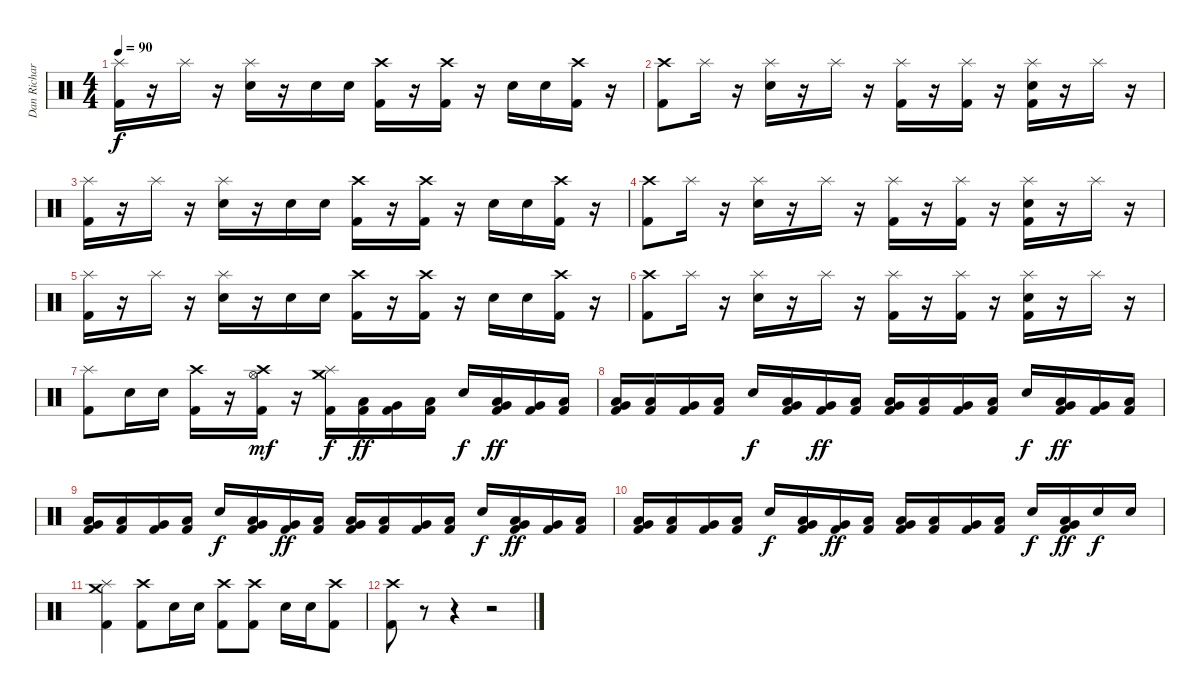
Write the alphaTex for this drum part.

\track ("Dan Richardson" "Dan Richar") {instrument percussion}
\staff {score}
\articulation defaults
\ts (4 4)
\tempo 90
\clef neutral
\ks c
("Splash (hit)" "Kick (hit) 2").16{dy f} r.16 "Splash (hit)".16 r.16 ("Splash (hit)" "Snare (hit) 2").16 r.16 "Snare (hit) 2".16 "Snare (hit) 2".16 ("Crash high (hit)" "Kick (hit) 2").16 r.16 ("Crash high (hit)" "Kick (hit) 2").16 r.16 "Snare (hit) 2".16 "Snare (hit) 2".16 ("Crash high (hit)" "Kick (hit) 2").16 r.16 |
("Crash high (hit)" "Kick (hit) 2").8 "Splash (hit)".16 r.16 ("Splash (hit)" "Snare (hit) 2").16 r.16 "Splash (hit)".16 r.16 ("Splash (hit)" "Kick (hit) 2").16 r.16 ("Splash (hit)" "Kick (hit) 2").16 r.16 ("Splash (hit)" "Snare (hit) 2" "Kick (hit) 2").16 r.16 "Splash (hit)".16 r.16 |
("Splash (hit)" "Kick (hit) 2").16 r.16 "Splash (hit)".16 r.16 ("Splash (hit)" "Snare (hit) 2").16 r.16 "Snare (hit) 2".16 "Snare (hit) 2".16 ("Crash high (hit)" "Kick (hit) 2").16 r.16 ("Crash high (hit)" "Kick (hit) 2").16 r.16 "Snare (hit) 2".16 "Snare (hit) 2".16 ("Crash high (hit)" "Kick (hit) 2").16 r.16 |
("Crash high (hit)" "Kick (hit) 2").8 "Splash (hit)".16 r.16 ("Splash (hit)" "Snare (hit) 2").16 r.16 "Splash (hit)".16 r.16 ("Splash (hit)" "Kick (hit) 2").16 r.16 ("Splash (hit)" "Kick (hit) 2").16 r.16 ("Splash (hit)" "Snare (hit) 2" "Kick (hit) 2").16 r.16 "Splash (hit)".16 r.16 |
("Splash (hit)" "Kick (hit) 2").16 r.16 "Splash (hit)".16 r.16 ("Splash (hit)" "Snare (hit) 2").16 r.16 "Snare (hit) 2".16 "Snare (hit) 2".16 ("Crash high (hit)" "Kick (hit) 2").16 r.16 ("Crash high (hit)" "Kick (hit) 2").16 r.16 "Snare (hit) 2".16 "Snare (hit) 2".16 ("Crash high (hit)" "Kick (hit) 2").16 r.16 |
("Crash high (hit)" "Kick (hit) 2").8 "Splash (hit)".16 r.16 ("Splash (hit)" "Snare (hit) 2").16 r.16 "Splash (hit)".16 r.16 ("Splash (hit)" "Kick (hit) 2").16 r.16 ("Splash (hit)" "Kick (hit) 2").16 r.16 ("Splash (hit)" "Snare (hit) 2" "Kick (hit) 2").16 r.16 "Splash (hit)".16 r.16 |
("Splash (hit)" "Kick (hit) 2").8 "Snare (hit) 2".16 "Snare (hit) 2".16 ("Crash high (hit)" "Kick (hit) 2").16 r.16 ("Crash high (hit)" "Hi-Hat (open)" "Kick (hit) 2").16{dy mf} r.16 ("Crash medium (hit)" "Splash (hit)" "Kick (hit) 2").16{dy f} ("Low Tom (hit)" "Kick (hit) 2").16{dy ff} ("Very Low Tom (hit)" "Kick (hit) 2").16 ("Low Floor Tom (hit)" "Kick (hit) 2").16 "Snare (hit) 2".16{dy f} ("Low Floor Tom (hit)" "Very Low Tom (hit)" "Kick (hit) 2").16{dy ff} ("Very Low Tom (hit)" "Kick (hit) 2").16 ("Low Floor Tom (hit)" "Kick (hit) 2").16 |
("Very Low Tom (hit)" "Low Tom (hit)" "Kick (hit) 2").16 ("Low Tom (hit)" "Kick (hit) 2").16 ("Very Low Tom (hit)" "Kick (hit) 2").16 ("Low Floor Tom (hit)" "Kick (hit) 2").16 "Snare (hit) 2".16{dy f} ("Low Floor Tom (hit)" "Very Low Tom (hit)" "Kick (hit) 2").16 ("Very Low Tom (hit)" "Kick (hit) 2").16{dy ff} ("Low Floor Tom (hit)" "Kick (hit) 2").16 ("Very Low Tom (hit)" "Low Tom (hit)" "Kick (hit) 2").16 ("Low Tom (hit)" "Kick (hit) 2").16 ("Very Low Tom (hit)" "Kick (hit) 2").16 ("Low Floor Tom (hit)" "Kick (hit) 2").16 "Snare (hit) 2".16{dy f} ("Low Floor Tom (hit)" "Very Low Tom (hit)" "Kick (hit) 2").16{dy ff} ("Very Low Tom (hit)" "Kick (hit) 2").16 ("Low Floor Tom (hit)" "Kick (hit) 2").16 |
("Very Low Tom (hit)" "Low Tom (hit)" "Kick (hit) 2").16 ("Low Tom (hit)" "Kick (hit) 2").16 ("Very Low Tom (hit)" "Kick (hit) 2").16 ("Low Floor Tom (hit)" "Kick (hit) 2").16 "Snare (hit) 2".16{dy f} ("Low Floor Tom (hit)" "Very Low Tom (hit)" "Kick (hit) 2").16 ("Very Low Tom (hit)" "Kick (hit) 2").16{dy ff} ("Low Floor Tom (hit)" "Kick (hit) 2").16 ("Very Low Tom (hit)" "Low Tom (hit)" "Kick (hit) 2").16 ("Low Tom (hit)" "Kick (hit) 2").16 ("Very Low Tom (hit)" "Kick (hit) 2").16 ("Low Floor Tom (hit)" "Kick (hit) 2").16 "Snare (hit) 2".16{dy f} ("Low Floor Tom (hit)" "Very Low Tom (hit)" "Kick (hit) 2").16{dy ff} ("Very Low Tom (hit)" "Kick (hit) 2").16 ("Low Floor Tom (hit)" "Kick (hit) 2").16 |
("Very Low Tom (hit)" "Low Tom (hit)" "Kick (hit) 2").16 ("Low Tom (hit)" "Kick (hit) 2").16 ("Very Low Tom (hit)" "Kick (hit) 2").16 ("Low Floor Tom (hit)" "Kick (hit) 2").16 "Snare (hit) 2".16{dy f} ("Low Floor Tom (hit)" "Very Low Tom (hit)" "Kick (hit) 2").16 ("Very Low Tom (hit)" "Kick (hit) 2").16{dy ff} ("Low Floor Tom (hit)" "Kick (hit) 2").16 ("Very Low Tom (hit)" "Low Tom (hit)" "Kick (hit) 2").16 ("Low Tom (hit)" "Kick (hit) 2").16 ("Very Low Tom (hit)" "Kick (hit) 2").16 ("Low Floor Tom (hit)" "Kick (hit) 2").16 "Snare (hit) 2".16{dy f} ("Low Floor Tom (hit)" "Very Low Tom (hit)" "Kick (hit) 2").16{dy ff} "Snare (hit) 2".16{dy f} "Snare (hit) 2".16 |
("Crash medium (hit)" "Splash (hit)" "Kick (hit) 2").4 ("Crash high (hit)" "Kick (hit) 2").8 "Snare (hit) 2".16 "Snare (hit) 2".16 ("Crash high (hit)" "Kick (hit) 2").8 ("Crash high (hit)" "Kick (hit) 2").8 "Snare (hit) 2".16 "Snare (hit) 2".16 ("Crash high (hit)" "Kick (hit) 2").8 |
("Crash high (hit)" "Kick (hit) 2").8 r.8 r.4 r.2
